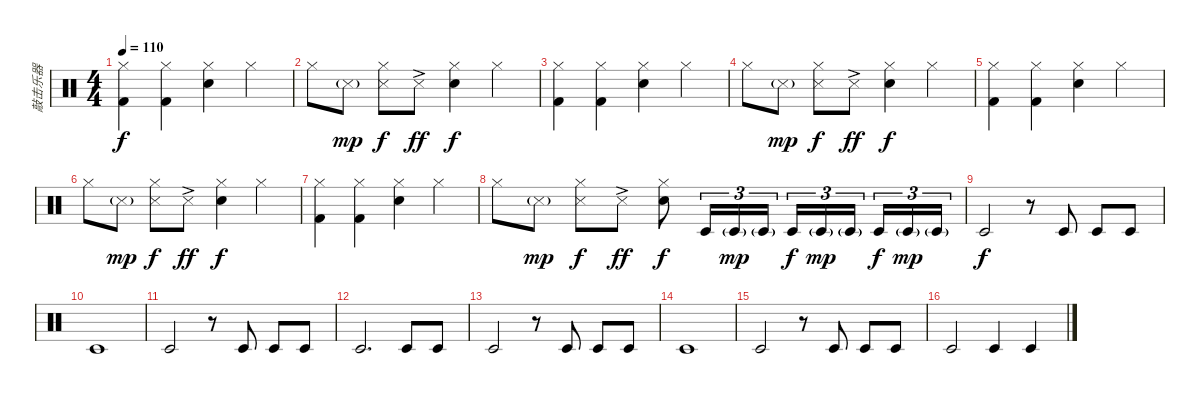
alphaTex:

\track ("敲击乐器" "敲击乐器") {instrument percussion}
\staff {score}
\articulation defaults
\ts (4 4)
\tempo 110
\clef neutral
\ks c
("Kick (hit) 2" "Hi-Hat (closed)").4{dy f} ("Kick (hit) 2" "Hi-Hat (closed)").4 ("Snare (hit) 2" "Hi-Hat (closed)").4 "Hi-Hat (closed)".4 |
"Hi-Hat (closed)".8 "Metronome (hit)"{g}.8{dy mp} ("Metronome (hit)" "Hi-Hat (closed)").8{dy f} "Metronome (hit)"{ac}.8{dy ff} ("Snare (hit) 2" "Hi-Hat (closed)").4{dy f} "Hi-Hat (closed)".4 |
("Kick (hit) 2" "Hi-Hat (closed)").4 ("Kick (hit) 2" "Hi-Hat (closed)").4 ("Snare (hit) 2" "Hi-Hat (closed)").4 "Hi-Hat (closed)".4 |
"Hi-Hat (closed)".8 "Metronome (hit)"{g}.8{dy mp} ("Metronome (hit)" "Hi-Hat (closed)").8{dy f} "Metronome (hit)"{ac}.8{dy ff} ("Snare (hit) 2" "Hi-Hat (closed)").4{dy f} "Hi-Hat (closed)".4 |
("Kick (hit) 2" "Hi-Hat (closed)").4 ("Kick (hit) 2" "Hi-Hat (closed)").4 ("Snare (hit) 2" "Hi-Hat (closed)").4 "Hi-Hat (closed)".4 |
"Hi-Hat (closed)".8 "Metronome (hit)"{g}.8{dy mp} ("Metronome (hit)" "Hi-Hat (closed)").8{dy f} "Metronome (hit)"{ac}.8{dy ff} ("Snare (hit) 2" "Hi-Hat (closed)").4{dy f} "Hi-Hat (closed)".4 |
("Kick (hit) 2" "Hi-Hat (closed)").4 ("Kick (hit) 2" "Hi-Hat (closed)").4 ("Snare (hit) 2" "Hi-Hat (closed)").4 "Hi-Hat (closed)".4 |
"Hi-Hat (closed)".8 "Metronome (hit)"{g}.8{dy mp} ("Metronome (hit)" "Hi-Hat (closed)").8{dy f} "Metronome (hit)"{ac}.8{dy ff} ("Snare (hit) 2" "Hi-Hat (closed)").8{dy f} "Timbale low (hit)".16{tu (3 2)} "Timbale low (hit)"{g}.16{tu (3 2) dy mp} "Timbale low (hit)"{g}.16{tu (3 2)} "Timbale low (hit)".16{tu (3 2) dy f} "Timbale low (hit)"{g}.16{tu (3 2) dy mp} "Timbale low (hit)"{g}.16{tu (3 2)} "Timbale low (hit)".16{tu (3 2) dy f} "Timbale low (hit)"{g}.16{tu (3 2) dy mp} "Timbale low (hit)"{g}.16{tu (3 2)} |
"Timbale low (hit)".2{dy f} r.8 "Timbale low (hit)".8 "Timbale low (hit)".8 "Timbale low (hit)".8 |
"Timbale low (hit)".1 |
"Timbale low (hit)".2 r.8 "Timbale low (hit)".8 "Timbale low (hit)".8 "Timbale low (hit)".8 |
"Timbale low (hit)".2{d} "Timbale low (hit)".8 "Timbale low (hit)".8 |
"Timbale low (hit)".2 r.8 "Timbale low (hit)".8 "Timbale low (hit)".8 "Timbale low (hit)".8 |
"Timbale low (hit)".1 |
"Timbale low (hit)".2 r.8 "Timbale low (hit)".8 "Timbale low (hit)".8 "Timbale low (hit)".8 |
"Timbale low (hit)".2 "Timbale low (hit)".4 "Timbale low (hit)".4
